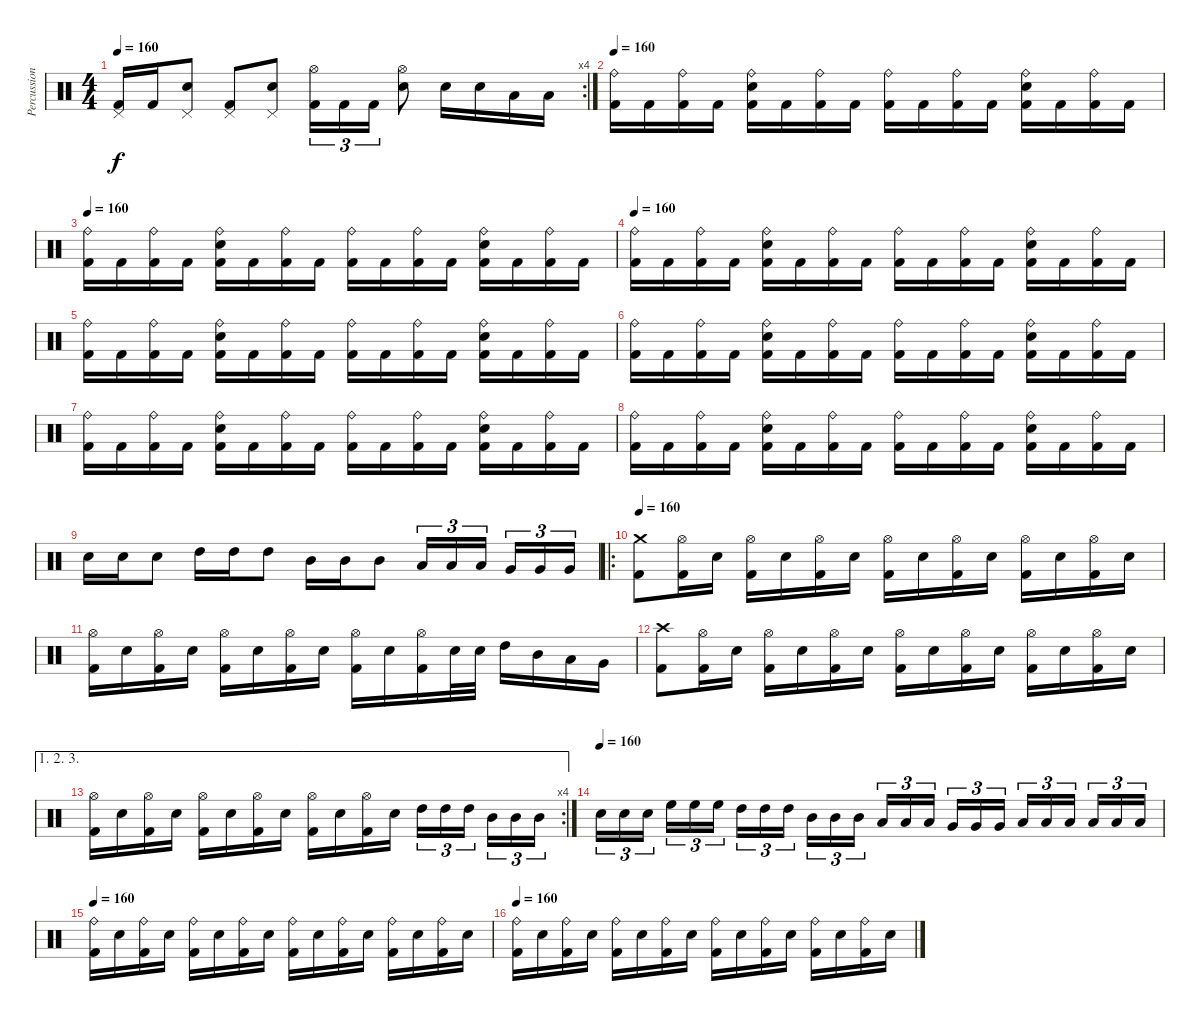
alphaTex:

\track ("Percussion" "Percussion") {instrument percussion}
\staff {score}
\articulation defaults
\rc 4
\ts (4 4)
\tempo 160
\clef neutral
\ks c
("Pedal Hi-Hat (hit)" "Kick (hit) 2").16{dy f} "Kick (hit) 2".16 ("Pedal Hi-Hat (hit)" "Snare (hit) 2").8 ("Pedal Hi-Hat (hit)" "Kick (hit) 2").8 ("Pedal Hi-Hat (hit)" "Snare (hit) 2").8 ("Hi-Hat (open)" "Kick (hit) 2").16{tu (3 2)} "Kick (hit) 2".16{tu (3 2)} "Kick (hit) 2".16{tu (3 2)} ("Hi-Hat (open)" "Snare (hit) 2").8 "Electric Snare (hit)".16 "Electric Snare (hit)".16 "Low Tom (hit)".16 "Low Tom (hit)".16 |
\tempo 160
("Ride (bell)" "Kick (hit) 2").16 "Kick (hit) 2".16 ("Ride (bell)" "Kick (hit) 2").16 "Kick (hit) 2".16 ("Ride (bell)" "Snare (hit) 2" "Kick (hit) 2").16 "Kick (hit) 2".16 ("Ride (bell)" "Kick (hit) 2").16 "Kick (hit) 2".16 ("Ride (bell)" "Kick (hit) 2").16 "Kick (hit) 2".16 ("Ride (bell)" "Kick (hit) 2").16 "Kick (hit) 2".16 ("Ride (bell)" "Snare (hit) 2" "Kick (hit) 2").16 "Kick (hit) 2".16 ("Ride (bell)" "Kick (hit) 2").16 "Kick (hit) 2".16 |
\tempo 160
("Ride (bell)" "Kick (hit) 2").16 "Kick (hit) 2".16 ("Ride (bell)" "Kick (hit) 2").16 "Kick (hit) 2".16 ("Ride (bell)" "Snare (hit) 2" "Kick (hit) 2").16 "Kick (hit) 2".16 ("Ride (bell)" "Kick (hit) 2").16 "Kick (hit) 2".16 ("Ride (bell)" "Kick (hit) 2").16 "Kick (hit) 2".16 ("Ride (bell)" "Kick (hit) 2").16 "Kick (hit) 2".16 ("Ride (bell)" "Snare (hit) 2" "Kick (hit) 2").16 "Kick (hit) 2".16 ("Ride (bell)" "Kick (hit) 2").16 "Kick (hit) 2".16 |
\tempo 160
("Ride (bell)" "Kick (hit) 2").16 "Kick (hit) 2".16 ("Ride (bell)" "Kick (hit) 2").16 "Kick (hit) 2".16 ("Ride (bell)" "Snare (hit) 2" "Kick (hit) 2").16 "Kick (hit) 2".16 ("Ride (bell)" "Kick (hit) 2").16 "Kick (hit) 2".16 ("Ride (bell)" "Kick (hit) 2").16 "Kick (hit) 2".16 ("Ride (bell)" "Kick (hit) 2").16 "Kick (hit) 2".16 ("Ride (bell)" "Snare (hit) 2" "Kick (hit) 2").16 "Kick (hit) 2".16 ("Ride (bell)" "Kick (hit) 2").16 "Kick (hit) 2".16 |
("Ride (bell)" "Kick (hit) 2").16 "Kick (hit) 2".16 ("Ride (bell)" "Kick (hit) 2").16 "Kick (hit) 2".16 ("Ride (bell)" "Snare (hit) 2" "Kick (hit) 2").16 "Kick (hit) 2".16 ("Ride (bell)" "Kick (hit) 2").16 "Kick (hit) 2".16 ("Ride (bell)" "Kick (hit) 2").16 "Kick (hit) 2".16 ("Ride (bell)" "Kick (hit) 2").16 "Kick (hit) 2".16 ("Ride (bell)" "Snare (hit) 2" "Kick (hit) 2").16 "Kick (hit) 2".16 ("Ride (bell)" "Kick (hit) 2").16 "Kick (hit) 2".16 |
("Ride (bell)" "Kick (hit) 2").16 "Kick (hit) 2".16 ("Ride (bell)" "Kick (hit) 2").16 "Kick (hit) 2".16 ("Ride (bell)" "Snare (hit) 2" "Kick (hit) 2").16 "Kick (hit) 2".16 ("Ride (bell)" "Kick (hit) 2").16 "Kick (hit) 2".16 ("Ride (bell)" "Kick (hit) 2").16 "Kick (hit) 2".16 ("Ride (bell)" "Kick (hit) 2").16 "Kick (hit) 2".16 ("Ride (bell)" "Snare (hit) 2" "Kick (hit) 2").16 "Kick (hit) 2".16 ("Ride (bell)" "Kick (hit) 2").16 "Kick (hit) 2".16 |
("Ride (bell)" "Kick (hit) 2").16 "Kick (hit) 2".16 ("Ride (bell)" "Kick (hit) 2").16 "Kick (hit) 2".16 ("Ride (bell)" "Snare (hit) 2" "Kick (hit) 2").16 "Kick (hit) 2".16 ("Ride (bell)" "Kick (hit) 2").16 "Kick (hit) 2".16 ("Ride (bell)" "Kick (hit) 2").16 "Kick (hit) 2".16 ("Ride (bell)" "Kick (hit) 2").16 "Kick (hit) 2".16 ("Ride (bell)" "Snare (hit) 2" "Kick (hit) 2").16 "Kick (hit) 2".16 ("Ride (bell)" "Kick (hit) 2").16 "Kick (hit) 2".16 |
("Ride (bell)" "Kick (hit) 2").16 "Kick (hit) 2".16 ("Ride (bell)" "Kick (hit) 2").16 "Kick (hit) 2".16 ("Ride (bell)" "Snare (hit) 2" "Kick (hit) 2").16 "Kick (hit) 2".16 ("Ride (bell)" "Kick (hit) 2").16 "Kick (hit) 2".16 ("Ride (bell)" "Kick (hit) 2").16 "Kick (hit) 2".16 ("Ride (bell)" "Kick (hit) 2").16 "Kick (hit) 2".16 ("Ride (bell)" "Snare (hit) 2" "Kick (hit) 2").16 "Kick (hit) 2".16 ("Ride (bell)" "Kick (hit) 2").16 "Kick (hit) 2".16 |
"Snare (hit) 2".16 "Snare (hit) 2".16 "Snare (hit) 2".8 "High Tom (hit)".16 "High Tom (hit)".16 "High Tom (hit)".8 "Mid Tom (hit)".16 "Mid Tom (hit)".16 "Mid Tom (hit)".8 "Low Tom (hit)".16{tu (3 2)} "Low Tom (hit)".16{tu (3 2)} "Low Tom (hit)".16{tu (3 2)} "Very Low Tom (hit)".16{tu (3 2)} "Very Low Tom (hit)".16{tu (3 2)} "Very Low Tom (hit)".16{tu (3 2)} |
\ro
\tempo 160
("Crash medium (hit)" "Kick (hit) 2").8 ("Hi-Hat (open)" "Kick (hit) 2").16 "Snare (hit) 2".16 ("Hi-Hat (open)" "Kick (hit) 2").16 "Snare (hit) 2".16 ("Hi-Hat (open)" "Kick (hit) 2").16 "Snare (hit) 2".16 ("Hi-Hat (open)" "Kick (hit) 2").16 "Snare (hit) 2".16 ("Hi-Hat (open)" "Kick (hit) 2").16 "Snare (hit) 2".16 ("Hi-Hat (open)" "Kick (hit) 2").16 "Snare (hit) 2".16 ("Hi-Hat (open)" "Kick (hit) 2").16 "Snare (hit) 2".16 |
("Hi-Hat (open)" "Kick (hit) 2").16 "Snare (hit) 2".16 ("Hi-Hat (open)" "Kick (hit) 2").16 "Snare (hit) 2".16 ("Hi-Hat (open)" "Kick (hit) 2").16 "Snare (hit) 2".16 ("Hi-Hat (open)" "Kick (hit) 2").16 "Snare (hit) 2".16 ("Hi-Hat (open)" "Kick (hit) 2").16 "Snare (hit) 2".16 ("Hi-Hat (open)" "Kick (hit) 2").16 "Snare (hit) 2".32 "Snare (hit) 2".32 "High Tom (hit)".16 "Mid Tom (hit)".16 "Low Tom (hit)".16 "Very Low Tom (hit)".16 |
("Crash high (hit)" "Kick (hit) 2").8 ("Hi-Hat (open)" "Kick (hit) 2").16 "Snare (hit) 2".16 ("Hi-Hat (open)" "Kick (hit) 2").16 "Snare (hit) 2".16 ("Hi-Hat (open)" "Kick (hit) 2").16 "Snare (hit) 2".16 ("Hi-Hat (open)" "Kick (hit) 2").16 "Snare (hit) 2".16 ("Hi-Hat (open)" "Kick (hit) 2").16 "Snare (hit) 2".16 ("Hi-Hat (open)" "Kick (hit) 2").16 "Snare (hit) 2".16 ("Hi-Hat (open)" "Kick (hit) 2").16 "Snare (hit) 2".16 |
\ae (1 2 3)
\rc 4
("Hi-Hat (open)" "Kick (hit) 2").16 "Snare (hit) 2".16 ("Hi-Hat (open)" "Kick (hit) 2").16 "Snare (hit) 2".16 ("Hi-Hat (open)" "Kick (hit) 2").16 "Snare (hit) 2".16 ("Hi-Hat (open)" "Kick (hit) 2").16 "Snare (hit) 2".16 ("Hi-Hat (open)" "Kick (hit) 2").16 "Snare (hit) 2".16 ("Hi-Hat (open)" "Kick (hit) 2").16 "Snare (hit) 2".16 "High Tom (hit)".16{tu (3 2)} "High Tom (hit)".16{tu (3 2)} "High Tom (hit)".16{tu (3 2)} "Mid Tom (hit)".16{tu (3 2)} "Mid Tom (hit)".16{tu (3 2)} "Mid Tom (hit)".16{tu (3 2)} |
\tempo (160)
"Electric Snare (hit)".16{tu (3 2)} "Electric Snare (hit)".16{tu (3 2)} "Electric Snare (hit)".16{tu (3 2)} "High Floor Tom (hit)".16{tu (3 2)} "High Floor Tom (hit)".16{tu (3 2)} "High Floor Tom (hit)".16{tu (3 2)} "High Tom (hit)".16{tu (3 2)} "High Tom (hit)".16{tu (3 2)} "High Tom (hit)".16{tu (3 2)} "Mid Tom (hit)".16{tu (3 2)} "Mid Tom (hit)".16{tu (3 2)} "Mid Tom (hit)".16{tu (3 2)} "Low Tom (hit)".16{tu (3 2)} "Low Tom (hit)".16{tu (3 2)} "Low Tom (hit)".16{tu (3 2)} "Very Low Tom (hit)".16{tu (3 2)} "Very Low Tom (hit)".16{tu (3 2)} "Very Low Tom (hit)".16{tu (3 2)} "Low Floor Tom (hit)".16{tu (3 2)} "Low Floor Tom (hit)".16{tu (3 2)} "Low Floor Tom (hit)".16{tu (3 2)} "Low Floor Tom (hit)".16{tu (3 2)} "Low Floor Tom (hit)".16{tu (3 2)} "Low Floor Tom (hit)".16{tu (3 2)} |
\tempo 160
("Ride (bell)" "Kick (hit) 2").16 "Electric Snare (hit)".16 ("Ride (bell)" "Kick (hit) 2").16 "Electric Snare (hit)".16 ("Ride (bell)" "Kick (hit) 2").16 "Electric Snare (hit)".16 ("Ride (bell)" "Kick (hit) 2").16 "Electric Snare (hit)".16 ("Ride (bell)" "Kick (hit) 2").16 "Electric Snare (hit)".16 ("Ride (bell)" "Kick (hit) 2").16 "Electric Snare (hit)".16 ("Ride (bell)" "Kick (hit) 2").16 "Electric Snare (hit)".16 ("Ride (bell)" "Kick (hit) 2").16 "Electric Snare (hit)".16 |
\tempo 160
("Ride (bell)" "Kick (hit) 2").16 "Electric Snare (hit)".16 ("Ride (bell)" "Kick (hit) 2").16 "Electric Snare (hit)".16 ("Ride (bell)" "Kick (hit) 2").16 "Electric Snare (hit)".16 ("Ride (bell)" "Kick (hit) 2").16 "Electric Snare (hit)".16 ("Ride (bell)" "Kick (hit) 2").16 "Electric Snare (hit)".16 ("Ride (bell)" "Kick (hit) 2").16 "Electric Snare (hit)".16 ("Ride (bell)" "Kick (hit) 2").16 "Electric Snare (hit)".16 ("Ride (bell)" "Kick (hit) 2").16 "Electric Snare (hit)".16
